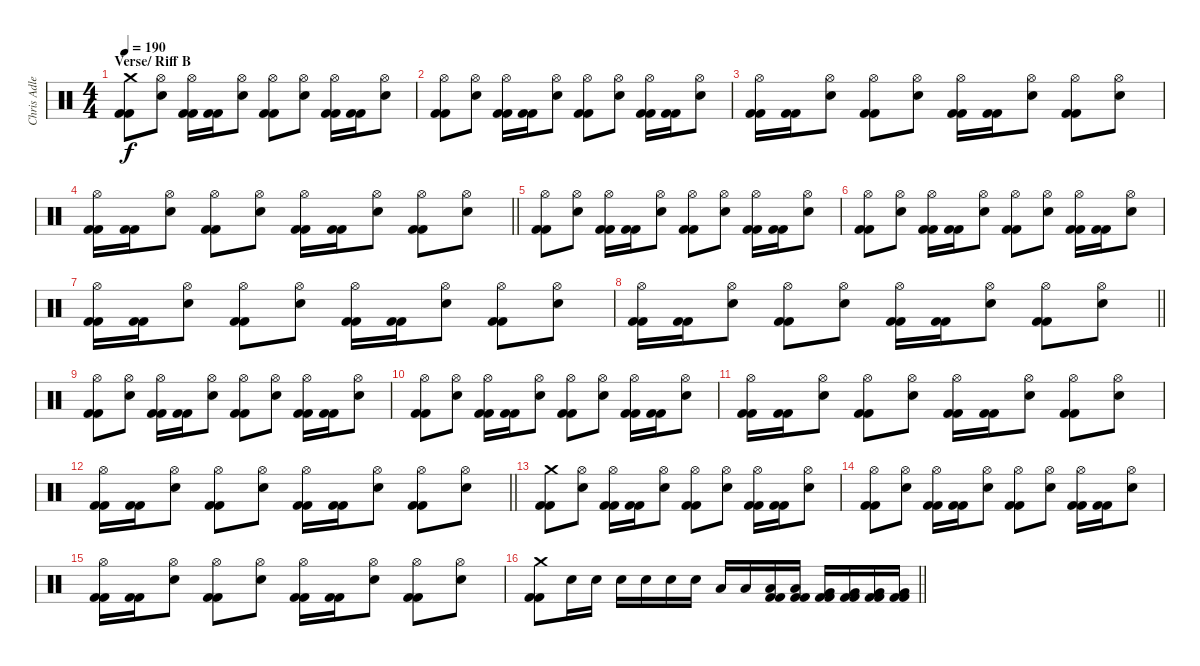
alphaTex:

\track ("Chris Adler" "Chris Adle") {instrument percussion}
\staff {score}
\articulation defaults
\ts (4 4)
\section ("" "Verse/ Riff B")
\tempo 190
\clef neutral
\ks c
("Crash medium (hit)" "Kick (hit) 2" "Kick (hit) 2").8{dy f} ("Hi-Hat (open)" "Snare (hit) 2").8 ("Hi-Hat (open)" "Kick (hit) 2" "Kick (hit) 2").16 ("Kick (hit) 2" "Kick (hit) 2").16 ("Hi-Hat (open)" "Snare (hit) 2").8 ("Hi-Hat (open)" "Kick (hit) 2" "Kick (hit) 2").8 ("Hi-Hat (open)" "Snare (hit) 2").8 ("Hi-Hat (open)" "Kick (hit) 2" "Kick (hit) 2").16 ("Kick (hit) 2" "Kick (hit) 2").16 ("Hi-Hat (open)" "Snare (hit) 2").8 |
("Hi-Hat (open)" "Kick (hit) 2" "Kick (hit) 2").8 ("Hi-Hat (open)" "Snare (hit) 2").8 ("Hi-Hat (open)" "Kick (hit) 2" "Kick (hit) 2").16 ("Kick (hit) 2" "Kick (hit) 2").16 ("Hi-Hat (open)" "Snare (hit) 2").8 ("Hi-Hat (open)" "Kick (hit) 2" "Kick (hit) 2").8 ("Hi-Hat (open)" "Snare (hit) 2").8 ("Hi-Hat (open)" "Kick (hit) 2" "Kick (hit) 2").16 ("Kick (hit) 2" "Kick (hit) 2").16 ("Hi-Hat (open)" "Snare (hit) 2").8 |
("Hi-Hat (open)" "Kick (hit) 2" "Kick (hit) 2").16 ("Kick (hit) 2" "Kick (hit) 2").16 ("Hi-Hat (open)" "Snare (hit) 2").8 ("Hi-Hat (open)" "Kick (hit) 2" "Kick (hit) 2").8 ("Hi-Hat (open)" "Snare (hit) 2").8 ("Hi-Hat (open)" "Kick (hit) 2" "Kick (hit) 2").16 ("Kick (hit) 2" "Kick (hit) 2").16 ("Hi-Hat (open)" "Snare (hit) 2").8 ("Hi-Hat (open)" "Kick (hit) 2" "Kick (hit) 2").8 ("Hi-Hat (open)" "Snare (hit) 2").8 |
\barLineRight lightlight
("Hi-Hat (open)" "Kick (hit) 2" "Kick (hit) 2").16 ("Kick (hit) 2" "Kick (hit) 2").16 ("Hi-Hat (open)" "Snare (hit) 2").8 ("Hi-Hat (open)" "Kick (hit) 2" "Kick (hit) 2").8 ("Hi-Hat (open)" "Snare (hit) 2").8 ("Hi-Hat (open)" "Kick (hit) 2" "Kick (hit) 2").16 ("Kick (hit) 2" "Kick (hit) 2").16 ("Hi-Hat (open)" "Snare (hit) 2").8 ("Hi-Hat (open)" "Kick (hit) 2" "Kick (hit) 2").8 ("Hi-Hat (open)" "Snare (hit) 2").8 |
("Hi-Hat (open)" "Kick (hit) 2" "Kick (hit) 2").8 ("Hi-Hat (open)" "Snare (hit) 2").8 ("Hi-Hat (open)" "Kick (hit) 2" "Kick (hit) 2").16 ("Kick (hit) 2" "Kick (hit) 2").16 ("Hi-Hat (open)" "Snare (hit) 2").8 ("Hi-Hat (open)" "Kick (hit) 2" "Kick (hit) 2").8 ("Hi-Hat (open)" "Snare (hit) 2").8 ("Hi-Hat (open)" "Kick (hit) 2" "Kick (hit) 2").16 ("Kick (hit) 2" "Kick (hit) 2").16 ("Hi-Hat (open)" "Snare (hit) 2").8 |
("Hi-Hat (open)" "Kick (hit) 2" "Kick (hit) 2").8 ("Hi-Hat (open)" "Snare (hit) 2").8 ("Hi-Hat (open)" "Kick (hit) 2" "Kick (hit) 2").16 ("Kick (hit) 2" "Kick (hit) 2").16 ("Hi-Hat (open)" "Snare (hit) 2").8 ("Hi-Hat (open)" "Kick (hit) 2" "Kick (hit) 2").8 ("Hi-Hat (open)" "Snare (hit) 2").8 ("Hi-Hat (open)" "Kick (hit) 2" "Kick (hit) 2").16 ("Kick (hit) 2" "Kick (hit) 2").16 ("Hi-Hat (open)" "Snare (hit) 2").8 |
("Hi-Hat (open)" "Kick (hit) 2" "Kick (hit) 2").16 ("Kick (hit) 2" "Kick (hit) 2").16 ("Hi-Hat (open)" "Snare (hit) 2").8 ("Hi-Hat (open)" "Kick (hit) 2" "Kick (hit) 2").8 ("Hi-Hat (open)" "Snare (hit) 2").8 ("Hi-Hat (open)" "Kick (hit) 2" "Kick (hit) 2").16 ("Kick (hit) 2" "Kick (hit) 2").16 ("Hi-Hat (open)" "Snare (hit) 2").8 ("Hi-Hat (open)" "Kick (hit) 2" "Kick (hit) 2").8 ("Hi-Hat (open)" "Snare (hit) 2").8 |
\barLineRight lightlight
("Hi-Hat (open)" "Kick (hit) 2" "Kick (hit) 2").16 ("Kick (hit) 2" "Kick (hit) 2").16 ("Hi-Hat (open)" "Snare (hit) 2").8 ("Hi-Hat (open)" "Kick (hit) 2" "Kick (hit) 2").8 ("Hi-Hat (open)" "Snare (hit) 2").8 ("Hi-Hat (open)" "Kick (hit) 2" "Kick (hit) 2").16 ("Kick (hit) 2" "Kick (hit) 2").16 ("Hi-Hat (open)" "Snare (hit) 2").8 ("Hi-Hat (open)" "Kick (hit) 2" "Kick (hit) 2").8 ("Hi-Hat (open)" "Snare (hit) 2").8 |
("Hi-Hat (open)" "Kick (hit) 2" "Kick (hit) 2").8 ("Hi-Hat (open)" "Snare (hit) 2").8 ("Hi-Hat (open)" "Kick (hit) 2" "Kick (hit) 2").16 ("Kick (hit) 2" "Kick (hit) 2").16 ("Hi-Hat (open)" "Snare (hit) 2").8 ("Hi-Hat (open)" "Kick (hit) 2" "Kick (hit) 2").8 ("Hi-Hat (open)" "Snare (hit) 2").8 ("Hi-Hat (open)" "Kick (hit) 2" "Kick (hit) 2").16 ("Kick (hit) 2" "Kick (hit) 2").16 ("Hi-Hat (open)" "Snare (hit) 2").8 |
("Hi-Hat (open)" "Kick (hit) 2" "Kick (hit) 2").8 ("Hi-Hat (open)" "Snare (hit) 2").8 ("Hi-Hat (open)" "Kick (hit) 2" "Kick (hit) 2").16 ("Kick (hit) 2" "Kick (hit) 2").16 ("Hi-Hat (open)" "Snare (hit) 2").8 ("Hi-Hat (open)" "Kick (hit) 2" "Kick (hit) 2").8 ("Hi-Hat (open)" "Snare (hit) 2").8 ("Hi-Hat (open)" "Kick (hit) 2" "Kick (hit) 2").16 ("Kick (hit) 2" "Kick (hit) 2").16 ("Hi-Hat (open)" "Snare (hit) 2").8 |
("Hi-Hat (open)" "Kick (hit) 2" "Kick (hit) 2").16 ("Kick (hit) 2" "Kick (hit) 2").16 ("Hi-Hat (open)" "Snare (hit) 2").8 ("Hi-Hat (open)" "Kick (hit) 2" "Kick (hit) 2").8 ("Hi-Hat (open)" "Snare (hit) 2").8 ("Hi-Hat (open)" "Kick (hit) 2" "Kick (hit) 2").16 ("Kick (hit) 2" "Kick (hit) 2").16 ("Hi-Hat (open)" "Snare (hit) 2").8 ("Hi-Hat (open)" "Kick (hit) 2" "Kick (hit) 2").8 ("Hi-Hat (open)" "Snare (hit) 2").8 |
\barLineRight lightlight
("Hi-Hat (open)" "Kick (hit) 2" "Kick (hit) 2").16 ("Kick (hit) 2" "Kick (hit) 2").16 ("Hi-Hat (open)" "Snare (hit) 2").8 ("Hi-Hat (open)" "Kick (hit) 2" "Kick (hit) 2").8 ("Hi-Hat (open)" "Snare (hit) 2").8 ("Hi-Hat (open)" "Kick (hit) 2" "Kick (hit) 2").16 ("Kick (hit) 2" "Kick (hit) 2").16 ("Hi-Hat (open)" "Snare (hit) 2").8 ("Hi-Hat (open)" "Kick (hit) 2" "Kick (hit) 2").8 ("Hi-Hat (open)" "Snare (hit) 2").8 |
("Crash medium (hit)" "Kick (hit) 2" "Kick (hit) 2").8 ("Hi-Hat (open)" "Snare (hit) 2").8 ("Hi-Hat (open)" "Kick (hit) 2" "Kick (hit) 2").16 ("Kick (hit) 2" "Kick (hit) 2").16 ("Hi-Hat (open)" "Snare (hit) 2").8 ("Hi-Hat (open)" "Kick (hit) 2" "Kick (hit) 2").8 ("Hi-Hat (open)" "Snare (hit) 2").8 ("Hi-Hat (open)" "Kick (hit) 2" "Kick (hit) 2").16 ("Kick (hit) 2" "Kick (hit) 2").16 ("Hi-Hat (open)" "Snare (hit) 2").8 |
("Hi-Hat (open)" "Kick (hit) 2" "Kick (hit) 2").8 ("Hi-Hat (open)" "Snare (hit) 2").8 ("Hi-Hat (open)" "Kick (hit) 2" "Kick (hit) 2").16 ("Kick (hit) 2" "Kick (hit) 2").16 ("Hi-Hat (open)" "Snare (hit) 2").8 ("Hi-Hat (open)" "Kick (hit) 2" "Kick (hit) 2").8 ("Hi-Hat (open)" "Snare (hit) 2").8 ("Hi-Hat (open)" "Kick (hit) 2" "Kick (hit) 2").16 ("Kick (hit) 2" "Kick (hit) 2").16 ("Hi-Hat (open)" "Snare (hit) 2").8 |
("Hi-Hat (open)" "Kick (hit) 2" "Kick (hit) 2").16 ("Kick (hit) 2" "Kick (hit) 2").16 ("Hi-Hat (open)" "Snare (hit) 2").8 ("Hi-Hat (open)" "Kick (hit) 2" "Kick (hit) 2").8 ("Hi-Hat (open)" "Snare (hit) 2").8 ("Hi-Hat (open)" "Kick (hit) 2" "Kick (hit) 2").16 ("Kick (hit) 2" "Kick (hit) 2").16 ("Hi-Hat (open)" "Snare (hit) 2").8 ("Hi-Hat (open)" "Kick (hit) 2" "Kick (hit) 2").8 ("Hi-Hat (open)" "Snare (hit) 2").8 |
\barLineRight lightlight
("Crash medium (hit)" "Kick (hit) 2" "Kick (hit) 2").8 "Snare (hit) 2".16 "Snare (hit) 2".16 "Snare (hit) 2".16 "Snare (hit) 2".16 "Snare (hit) 2".16 "Snare (hit) 2".16 "Low Tom (hit)".16 "Low Tom (hit)".16 ("Low Tom (hit)" "Kick (hit) 2" "Kick (hit) 2").16 ("Low Tom (hit)" "Kick (hit) 2" "Kick (hit) 2").16 ("Very Low Tom (hit)" "Kick (hit) 2" "Kick (hit) 2").16 ("Very Low Tom (hit)" "Kick (hit) 2" "Kick (hit) 2").16 ("Very Low Tom (hit)" "Kick (hit) 2" "Kick (hit) 2").16 ("Very Low Tom (hit)" "Kick (hit) 2" "Kick (hit) 2").16
